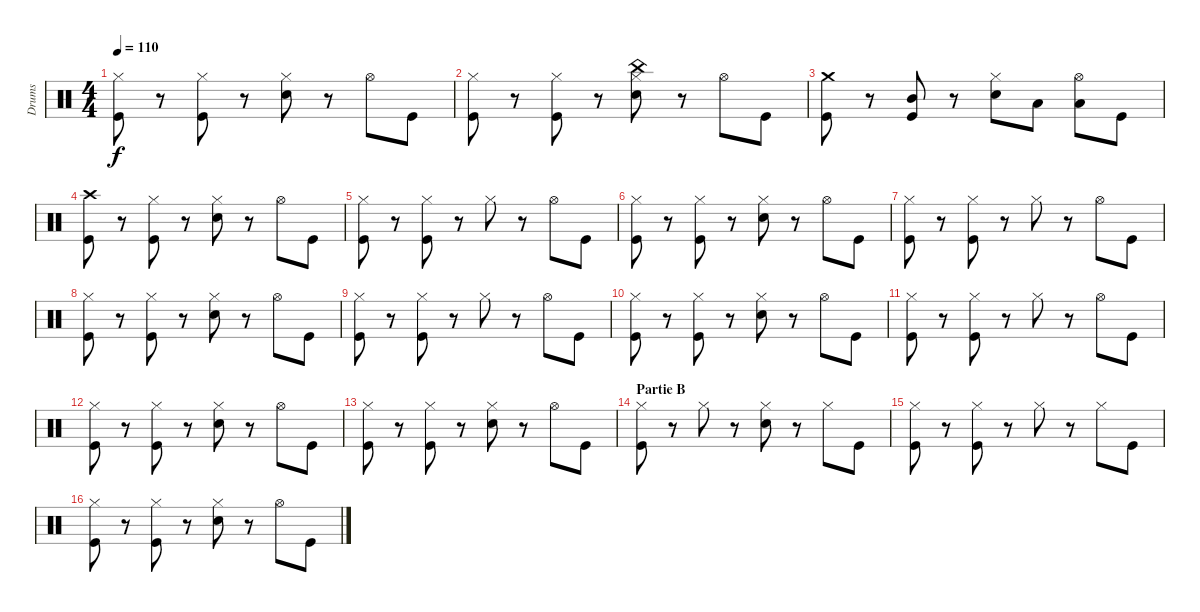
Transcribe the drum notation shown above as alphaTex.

\track ("Drums" "Drums") {instrument percussion}
\staff {score}
\articulation defaults
\ts (4 4)
\tempo 110
\clef neutral
\ks c
("Hi-Hat (closed)" "Kick (hit)").8{dy f} r.8 ("Hi-Hat (closed)" "Kick (hit)").8 r.8 ("Hi-Hat (closed)" "Electric Snare (hit)").8 r.8 "Hi-Hat (open)".8 "Kick (hit)".8 |
("Hi-Hat (closed)" "Kick (hit)").8 r.8 ("Hi-Hat (closed)" "Kick (hit)").8 r.8 ("China (hit)" "Hi-Hat (closed)" "Electric Snare (hit)").8 r.8 "Hi-Hat (open)".8 "Kick (hit)".8 |
("Crash medium (hit)" "Kick (hit)").8 r.8 ("Mid Tom (hit)" "Kick (hit)").8 r.8 ("Hi-Hat (closed)" "Electric Snare (hit)").8 "Low Tom (hit)".8 ("Low Floor Tom (hit)" "Hi-Hat (open)").8 "Kick (hit)".8 |
("Crash high (hit)" "Kick (hit)").8 r.8 ("Kick (hit)" "Hi-Hat (closed)").8 r.8 ("Electric Snare (hit)" "Hi-Hat (closed)").8 r.8 "Hi-Hat (open)".8 "Kick (hit)".8 |
("Kick (hit)" "Hi-Hat (closed)").8 r.8 ("Kick (hit)" "Hi-Hat (closed)").8 r.8 "Hi-Hat (closed)".8 r.8 "Hi-Hat (open)".8 "Kick (hit)".8 |
("Kick (hit)" "Hi-Hat (closed)").8 r.8 ("Kick (hit)" "Hi-Hat (closed)").8 r.8 ("Electric Snare (hit)" "Hi-Hat (closed)").8 r.8 "Hi-Hat (open)".8 "Kick (hit)".8 |
("Hi-Hat (closed)" "Kick (hit)").8 r.8 ("Hi-Hat (closed)" "Kick (hit)").8 r.8 "Hi-Hat (closed)".8 r.8 "Hi-Hat (open)".8 "Kick (hit)".8 |
("Hi-Hat (closed)" "Kick (hit)").8 r.8 ("Hi-Hat (closed)" "Kick (hit)").8 r.8 ("Hi-Hat (closed)" "Snare (hit) 2").8 r.8 "Hi-Hat (open)".8 "Kick (hit)".8 |
("Hi-Hat (closed)" "Kick (hit)").8 r.8 ("Hi-Hat (closed)" "Kick (hit)").8 r.8 "Hi-Hat (closed)".8 r.8 "Hi-Hat (open)".8 "Kick (hit)".8 |
("Hi-Hat (closed)" "Kick (hit)").8 r.8 ("Kick (hit)" "Hi-Hat (closed)").8 r.8 ("Hi-Hat (closed)" "Electric Snare (hit)").8 r.8 "Hi-Hat (open)".8 "Kick (hit)".8 |
("Hi-Hat (closed)" "Kick (hit)").8 r.8 ("Hi-Hat (closed)" "Kick (hit)").8 r.8 "Hi-Hat (closed)".8 r.8 "Hi-Hat (open)".8 "Kick (hit)".8 |
("Hi-Hat (closed)" "Kick (hit)").8 r.8 ("Kick (hit)" "Hi-Hat (closed)").8 r.8 ("Hi-Hat (closed)" "Electric Snare (hit)").8 r.8 "Hi-Hat (open)".8 "Kick (hit)".8 |
("Hi-Hat (closed)" "Kick (hit)").8 r.8 ("Hi-Hat (closed)" "Kick (hit)").8 r.8 ("Electric Snare (hit)" "Hi-Hat (closed)").8 r.8 "Hi-Hat (open)".8 "Kick (hit)".8 |
\section ("" "Partie B")
("Hi-Hat (closed)" "Kick (hit)").8 r.8 "Hi-Hat (closed)".8 r.8 ("Hi-Hat (closed)" "Electric Snare (hit)").8 r.8 "Hi-Hat (closed)".8 "Kick (hit)".8 |
("Hi-Hat (closed)" "Kick (hit)").8 r.8 ("Hi-Hat (closed)" "Kick (hit)").8 r.8 "Hi-Hat (closed)".8 r.8 "Hi-Hat (closed)".8 "Kick (hit)".8 |
("Hi-Hat (closed)" "Kick (hit)").8 r.8 ("Hi-Hat (closed)" "Kick (hit)").8 r.8 ("Hi-Hat (closed)" "Electric Snare (hit)").8 r.8 "Hi-Hat (open)".8 "Kick (hit)".8
